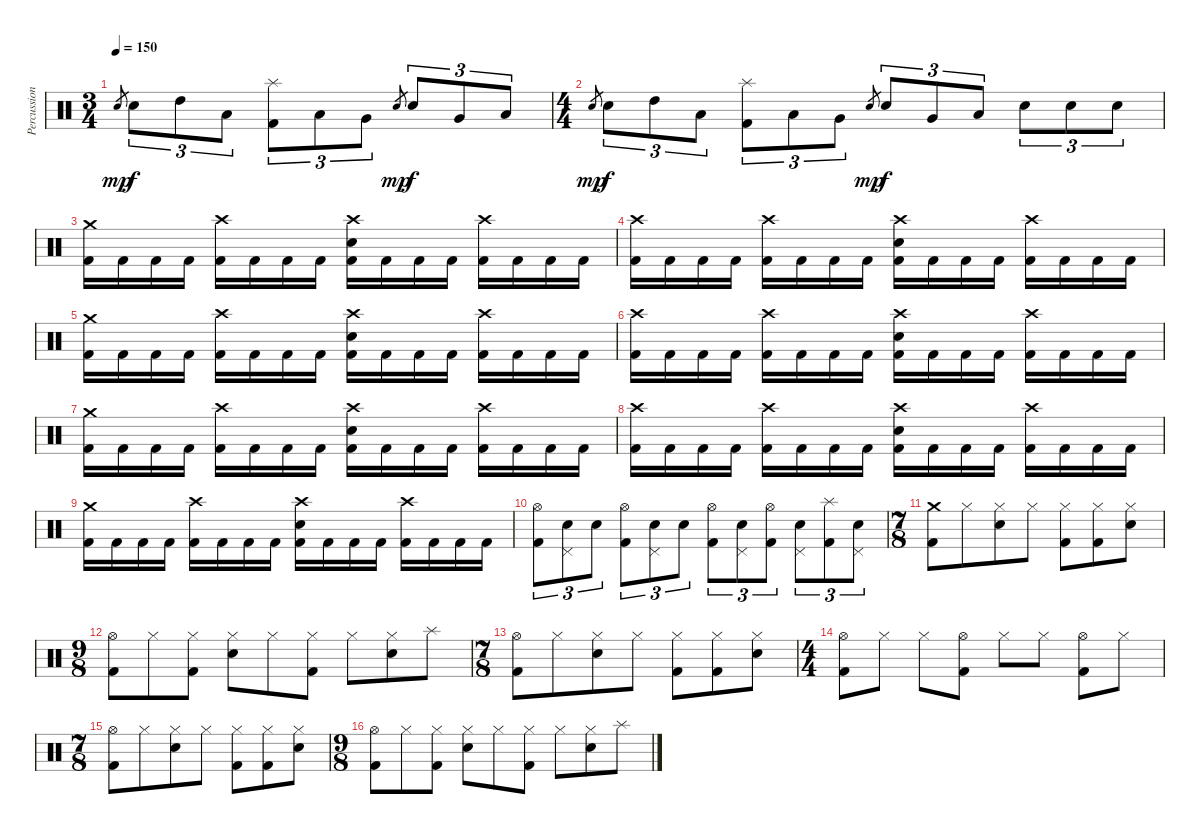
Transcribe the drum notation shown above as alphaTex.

\track ("Percussions" "Percussion") {instrument percussion}
\staff {score}
\articulation defaults
\ts (3 4)
\tempo 150
\clef neutral
\ks c "Snare (hit) 2".8{gr dy mp} "Snare (hit) 2".8{tu (3 2) dy f} "High Tom (hit)".8{tu (3 2)} "Low Tom (hit)".8{tu (3 2)}
("Splash (hit)" "Kick (hit) 2").8{tu (3 2)} "Low Tom (hit)".8{tu (3 2)} "Very Low Tom (hit)".8{tu (3 2)} "Snare (hit) 2".8{gr dy mp} "Snare (hit) 2".8{tu (3 2) dy f} "Very Low Tom (hit)".8{tu (3 2)} "Low Floor Tom (hit)".8{tu (3 2)} |
\ts (4 4)
"Snare (hit) 2".8{gr dy mp} "Snare (hit) 2".8{tu (3 2) dy f} "High Tom (hit)".8{tu (3 2)} "Low Tom (hit)".8{tu (3 2)} ("Splash (hit)" "Kick (hit) 2").8{tu (3 2)} "Low Tom (hit)".8{tu (3 2)} "Very Low Tom (hit)".8{tu (3 2)} "Snare (hit) 2".8{gr dy mp} "Snare (hit) 2".8{tu (3 2) dy f} "Very Low Tom (hit)".8{tu (3 2)} "Low Floor Tom (hit)".8{tu (3 2)} "Snare (hit) 2".8{tu (3 2)} "Snare (hit) 2".8{tu (3 2)} "Snare (hit) 2".8{tu (3 2)} |
("Crash medium (hit)" "Kick (hit) 2").16 "Kick (hit) 2".16 "Kick (hit) 2".16 "Kick (hit) 2".16 ("Crash high (hit)" "Kick (hit) 2").16 "Kick (hit) 2".16 "Kick (hit) 2".16 "Kick (hit) 2".16 ("Crash high (hit)" "Snare (hit) 2" "Kick (hit) 2").16 "Kick (hit) 2".16 "Kick (hit) 2".16 "Kick (hit) 2".16 ("Crash high (hit)" "Kick (hit) 2").16 "Kick (hit) 2".16 "Kick (hit) 2".16 "Kick (hit) 2".16 |
("Crash high (hit)" "Kick (hit) 2").16 "Kick (hit) 2".16 "Kick (hit) 2".16 "Kick (hit) 2".16 ("Crash high (hit)" "Kick (hit) 2").16 "Kick (hit) 2".16 "Kick (hit) 2".16 "Kick (hit) 2".16 ("Crash high (hit)" "Snare (hit) 2" "Kick (hit) 2").16 "Kick (hit) 2".16 "Kick (hit) 2".16 "Kick (hit) 2".16 ("Crash high (hit)" "Kick (hit) 2").16 "Kick (hit) 2".16 "Kick (hit) 2".16 "Kick (hit) 2".16 |
("Crash medium (hit)" "Kick (hit) 2").16 "Kick (hit) 2".16 "Kick (hit) 2".16 "Kick (hit) 2".16 ("Crash high (hit)" "Kick (hit) 2").16 "Kick (hit) 2".16 "Kick (hit) 2".16 "Kick (hit) 2".16 ("Crash high (hit)" "Snare (hit) 2" "Kick (hit) 2").16 "Kick (hit) 2".16 "Kick (hit) 2".16 "Kick (hit) 2".16 ("Crash high (hit)" "Kick (hit) 2").16 "Kick (hit) 2".16 "Kick (hit) 2".16 "Kick (hit) 2".16 |
("Crash high (hit)" "Kick (hit) 2").16 "Kick (hit) 2".16 "Kick (hit) 2".16 "Kick (hit) 2".16 ("Crash high (hit)" "Kick (hit) 2").16 "Kick (hit) 2".16 "Kick (hit) 2".16 "Kick (hit) 2".16 ("Crash high (hit)" "Snare (hit) 2" "Kick (hit) 2").16 "Kick (hit) 2".16 "Kick (hit) 2".16 "Kick (hit) 2".16 ("Crash high (hit)" "Kick (hit) 2").16 "Kick (hit) 2".16 "Kick (hit) 2".16 "Kick (hit) 2".16 |
("Crash medium (hit)" "Kick (hit) 2").16 "Kick (hit) 2".16 "Kick (hit) 2".16 "Kick (hit) 2".16 ("Crash high (hit)" "Kick (hit) 2").16 "Kick (hit) 2".16 "Kick (hit) 2".16 "Kick (hit) 2".16 ("Crash high (hit)" "Snare (hit) 2" "Kick (hit) 2").16 "Kick (hit) 2".16 "Kick (hit) 2".16 "Kick (hit) 2".16 ("Crash high (hit)" "Kick (hit) 2").16 "Kick (hit) 2".16 "Kick (hit) 2".16 "Kick (hit) 2".16 |
("Crash high (hit)" "Kick (hit) 2").16 "Kick (hit) 2".16 "Kick (hit) 2".16 "Kick (hit) 2".16 ("Crash high (hit)" "Kick (hit) 2").16 "Kick (hit) 2".16 "Kick (hit) 2".16 "Kick (hit) 2".16 ("Crash high (hit)" "Snare (hit) 2" "Kick (hit) 2").16 "Kick (hit) 2".16 "Kick (hit) 2".16 "Kick (hit) 2".16 ("Crash high (hit)" "Kick (hit) 2").16 "Kick (hit) 2".16 "Kick (hit) 2".16 "Kick (hit) 2".16 |
("Crash medium (hit)" "Kick (hit) 2").16 "Kick (hit) 2".16 "Kick (hit) 2".16 "Kick (hit) 2".16 ("Crash high (hit)" "Kick (hit) 2").16 "Kick (hit) 2".16 "Kick (hit) 2".16 "Kick (hit) 2".16 ("Crash high (hit)" "Snare (hit) 2" "Kick (hit) 2").16 "Kick (hit) 2".16 "Kick (hit) 2".16 "Kick (hit) 2".16 ("Crash high (hit)" "Kick (hit) 2").16 "Kick (hit) 2".16 "Kick (hit) 2".16 "Kick (hit) 2".16 |
("Hi-Hat (open)" "Kick (hit) 2").8{tu (3 2)} ("Snare (hit) 2" "Pedal Hi-Hat (hit)").8{tu (3 2)} "Snare (hit) 2".8{tu (3 2)} ("Hi-Hat (open)" "Kick (hit) 2").8{tu (3 2)} ("Snare (hit) 2" "Pedal Hi-Hat (hit)").8{tu (3 2)} "Snare (hit) 2".8{tu (3 2)} ("Hi-Hat (open)" "Kick (hit) 2").8{tu (3 2)} ("Snare (hit) 2" "Pedal Hi-Hat (hit)").8{tu (3 2)} ("Hi-Hat (open)" "Kick (hit) 2").8{tu (3 2)} ("Snare (hit) 2" "Pedal Hi-Hat (hit)").8{tu (3 2)} ("Splash (hit)" "Kick (hit) 2").8{tu (3 2)} ("Snare (hit) 2" "Pedal Hi-Hat (hit)").8{tu (3 2)} |
\ts (7 8)
("Crash medium (hit)" "Kick (hit) 2").8 "Hi-Hat (closed)".8 ("Hi-Hat (closed)" "Snare (hit) 2").8 "Hi-Hat (closed)".8 ("Hi-Hat (closed)" "Kick (hit) 2").8 ("Hi-Hat (closed)" "Kick (hit) 2").8 ("Hi-Hat (closed)" "Snare (hit) 2").8 |
\ts (9 8)
("Hi-Hat (open)" "Kick (hit) 2").8 "Hi-Hat (closed)".8 ("Hi-Hat (closed)" "Kick (hit) 2").8 ("Hi-Hat (closed)" "Snare (hit) 2").8 "Hi-Hat (closed)".8 ("Hi-Hat (closed)" "Kick (hit) 2").8 "Hi-Hat (closed)".8 ("Hi-Hat (closed)" "Snare (hit) 2").8 "Splash (hit)".8 |
\ts (7 8)
("Hi-Hat (open)" "Kick (hit) 2").8 "Hi-Hat (closed)".8 ("Hi-Hat (closed)" "Snare (hit) 2").8 "Hi-Hat (closed)".8 ("Hi-Hat (closed)" "Kick (hit) 2").8 ("Hi-Hat (closed)" "Kick (hit) 2").8 ("Hi-Hat (closed)" "Snare (hit) 2").8 |
\ts (4 4)
("Hi-Hat (open)" "Kick (hit) 2").8 "Hi-Hat (closed)".8 "Hi-Hat (closed)".8 ("Hi-Hat (open)" "Kick (hit) 2").8 "Hi-Hat (closed)".8 "Hi-Hat (closed)".8 ("Hi-Hat (open)" "Kick (hit) 2").8 "Hi-Hat (closed)".8 |
\ts (7 8)
("Hi-Hat (open)" "Kick (hit) 2").8 "Hi-Hat (closed)".8 ("Hi-Hat (closed)" "Snare (hit) 2").8 "Hi-Hat (closed)".8 ("Hi-Hat (closed)" "Kick (hit) 2").8 ("Hi-Hat (closed)" "Kick (hit) 2").8 ("Hi-Hat (closed)" "Snare (hit) 2").8 |
\ts (9 8)
("Hi-Hat (open)" "Kick (hit) 2").8 "Hi-Hat (closed)".8 ("Hi-Hat (closed)" "Kick (hit) 2").8 ("Hi-Hat (closed)" "Snare (hit) 2").8 "Hi-Hat (closed)".8 ("Hi-Hat (closed)" "Kick (hit) 2").8 "Hi-Hat (closed)".8 ("Hi-Hat (closed)" "Snare (hit) 2").8 "Splash (hit)".8
